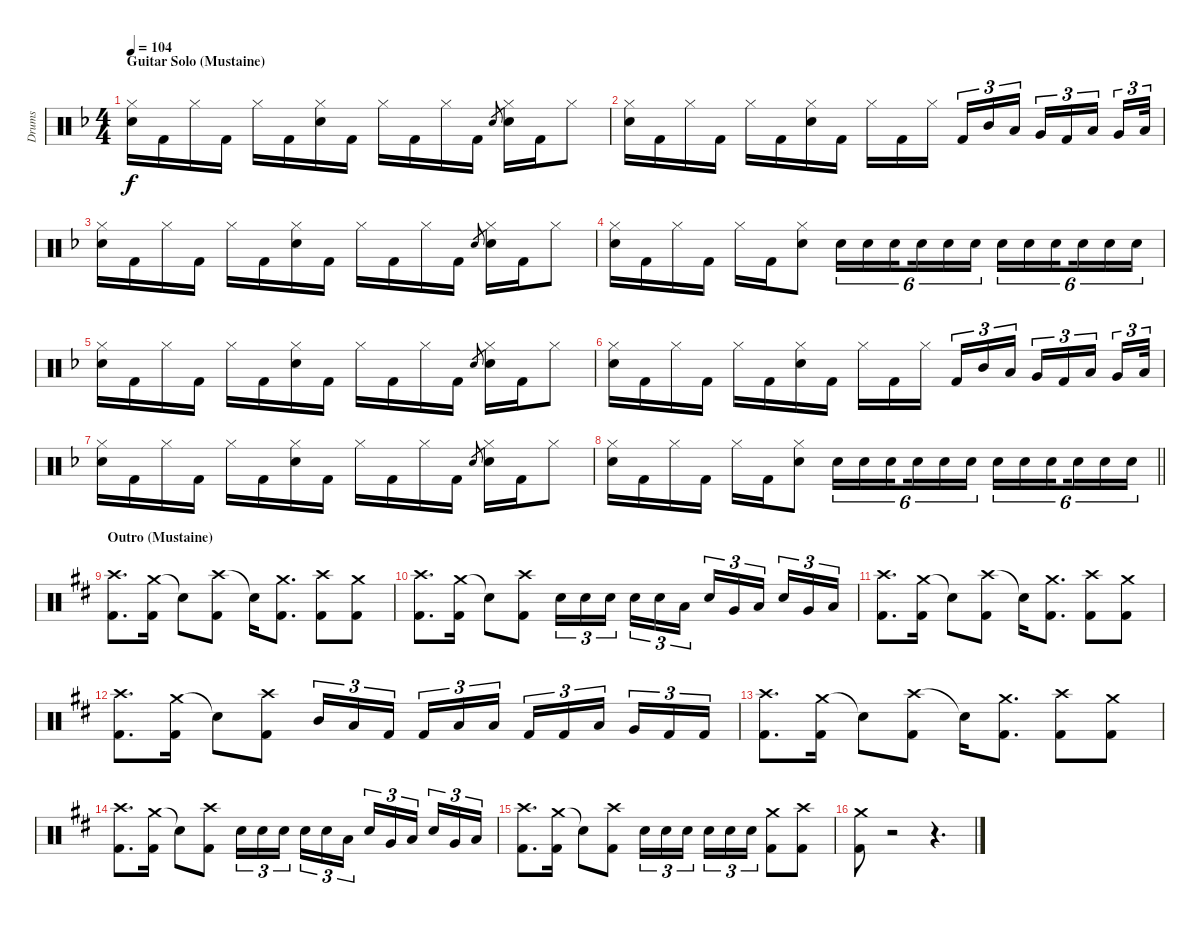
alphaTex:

\track ("Drums" "Drums") {instrument percussion}
\staff {score}
\articulation defaults
\ts (4 4)
\section ("" "Guitar Solo (Mustaine)")
\tempo 104
\clef neutral
\ks dminor
("Hi-Hat (closed)" "Snare (hit) 2").16{dy f} "Kick (hit) 2".16 "Hi-Hat (closed)".16 "Kick (hit) 2".16 "Hi-Hat (closed)".16 "Kick (hit) 2".16 ("Hi-Hat (closed)" "Snare (hit) 2").16 "Kick (hit) 2".16 "Hi-Hat (closed)".16 "Kick (hit) 2".16 "Hi-Hat (closed)".16 "Kick (hit) 2".16 "Snare (hit) 2".8{gr} ("Hi-Hat (closed)" "Snare (hit) 2").16 "Kick (hit) 2".16 "Hi-Hat (closed)".8 |
("Hi-Hat (closed)" "Snare (hit) 2").16 "Kick (hit) 2".16 "Hi-Hat (closed)".16 "Kick (hit) 2".16 "Hi-Hat (closed)".16 "Kick (hit) 2".16 ("Hi-Hat (closed)" "Snare (hit) 2").16 "Kick (hit) 2".16 "Hi-Hat (closed)".16 "Kick (hit) 2".16 "Hi-Hat (closed)".16{beam splitsecondary} "Kick (hit) 2".16{tu (3 2)} "Mid Tom (hit)".16{tu (3 2)} "Low Tom (hit)".16{tu (3 2) beam splitsecondary} "Very Low Tom (hit)".16{tu (3 2)} "Kick (hit) 2".16{tu (3 2)} "Low Tom (hit)".16{tu (3 2) beam splitsecondary} "Very Low Tom (hit)".16{tu (3 2)} "Low Floor Tom (hit)".32{tu (3 2)} |
("Hi-Hat (closed)" "Snare (hit) 2").16 "Kick (hit) 2".16 "Hi-Hat (closed)".16 "Kick (hit) 2".16 "Hi-Hat (closed)".16 "Kick (hit) 2".16 ("Hi-Hat (closed)" "Snare (hit) 2").16 "Kick (hit) 2".16 "Hi-Hat (closed)".16 "Kick (hit) 2".16 "Hi-Hat (closed)".16 "Kick (hit) 2".16 "Snare (hit) 2".8{gr} ("Hi-Hat (closed)" "Snare (hit) 2").16 "Kick (hit) 2".16 "Hi-Hat (closed)".8 |
("Hi-Hat (closed)" "Snare (hit) 2").16 "Kick (hit) 2".16 "Hi-Hat (closed)".16 "Kick (hit) 2".16 "Hi-Hat (closed)".16 "Kick (hit) 2".16 ("Hi-Hat (closed)" "Snare (hit) 2").8 "Snare (hit) 2".16{tu (6 4)} "Snare (hit) 2".16{tu (6 4)} "Snare (hit) 2".16{tu (6 4) beam splitsecondary} "Snare (hit) 2".16{tu (6 4)} "Snare (hit) 2".16{tu (6 4)} "Snare (hit) 2".16{tu (6 4)} "Snare (hit) 2".16{tu (6 4)} "Snare (hit) 2".16{tu (6 4)} "Snare (hit) 2".16{tu (6 4) beam splitsecondary} "Snare (hit) 2".16{tu (6 4)} "Snare (hit) 2".16{tu (6 4)} "Snare (hit) 2".16{tu (6 4)} |
("Hi-Hat (closed)" "Snare (hit) 2").16 "Kick (hit) 2".16 "Hi-Hat (closed)".16 "Kick (hit) 2".16 "Hi-Hat (closed)".16 "Kick (hit) 2".16 ("Hi-Hat (closed)" "Snare (hit) 2").16 "Kick (hit) 2".16 "Hi-Hat (closed)".16 "Kick (hit) 2".16 "Hi-Hat (closed)".16 "Kick (hit) 2".16 "Snare (hit) 2".8{gr} ("Hi-Hat (closed)" "Snare (hit) 2").16 "Kick (hit) 2".16 "Hi-Hat (closed)".8 |
("Hi-Hat (closed)" "Snare (hit) 2").16 "Kick (hit) 2".16 "Hi-Hat (closed)".16 "Kick (hit) 2".16 "Hi-Hat (closed)".16 "Kick (hit) 2".16 ("Hi-Hat (closed)" "Snare (hit) 2").16 "Kick (hit) 2".16 "Hi-Hat (closed)".16 "Kick (hit) 2".16 "Hi-Hat (closed)".16{beam splitsecondary} "Kick (hit) 2".16{tu (3 2)} "Mid Tom (hit)".16{tu (3 2)} "Low Tom (hit)".16{tu (3 2) beam splitsecondary} "Very Low Tom (hit)".16{tu (3 2)} "Kick (hit) 2".16{tu (3 2)} "Low Tom (hit)".16{tu (3 2) beam splitsecondary} "Very Low Tom (hit)".16{tu (3 2)} "Low Floor Tom (hit)".32{tu (3 2)} |
("Hi-Hat (closed)" "Snare (hit) 2").16 "Kick (hit) 2".16 "Hi-Hat (closed)".16 "Kick (hit) 2".16 "Hi-Hat (closed)".16 "Kick (hit) 2".16 ("Hi-Hat (closed)" "Snare (hit) 2").16 "Kick (hit) 2".16 "Hi-Hat (closed)".16 "Kick (hit) 2".16 "Hi-Hat (closed)".16 "Kick (hit) 2".16 "Snare (hit) 2".8{gr} ("Hi-Hat (closed)" "Snare (hit) 2").16 "Kick (hit) 2".16 "Hi-Hat (closed)".8 |
\barLineRight lightlight
("Hi-Hat (closed)" "Snare (hit) 2").16 "Kick (hit) 2".16 "Hi-Hat (closed)".16 "Kick (hit) 2".16 "Hi-Hat (closed)".16 "Kick (hit) 2".16 ("Hi-Hat (closed)" "Snare (hit) 2").8 "Snare (hit) 2".16{tu (6 4)} "Snare (hit) 2".16{tu (6 4)} "Snare (hit) 2".16{tu (6 4) beam splitsecondary} "Snare (hit) 2".16{tu (6 4)} "Snare (hit) 2".16{tu (6 4)} "Snare (hit) 2".16{tu (6 4)} "Snare (hit) 2".16{tu (6 4)} "Snare (hit) 2".16{tu (6 4)} "Snare (hit) 2".16{tu (6 4) beam splitsecondary} "Snare (hit) 2".16{tu (6 4)} "Snare (hit) 2".16{tu (6 4)} "Snare (hit) 2".16{tu (6 4)} |
\section ("" "Outro (Mustaine)")
\ks bminor
("Crash high (hit)" "Kick (hit) 2").8{d} ("Crash medium (hit)" "Kick (hit) 2").16 "Snare (hit)"{t}.8 ("Crash high (hit)" "Kick (hit) 2").8 "Snare (hit)"{t}.16 ("Crash medium (hit)" "Kick (hit) 2").8{d} ("Crash high (hit)" "Kick (hit) 2").8 ("Crash medium (hit)" "Kick (hit) 2").8 |
("Crash high (hit)" "Kick (hit) 2").8{d} ("Crash medium (hit)" "Kick (hit) 2").16 "Snare (hit)"{t}.8 ("Crash high (hit)" "Kick (hit) 2").8 "Snare (hit) 2".16{tu (3 2)} "Snare (hit) 2".16{tu (3 2)} "Snare (hit) 2".16{tu (3 2) beam splitsecondary} "Snare (hit) 2".16{tu (3 2)} "Snare (hit) 2".16{tu (3 2)} "Low Tom (hit)".16{tu (3 2)} "Snare (hit) 2".16{tu (3 2)} "Very Low Tom (hit)".16{tu (3 2)} "Low Tom (hit)".16{tu (3 2) beam splitsecondary} "Snare (hit) 2".16{tu (3 2)} "Very Low Tom (hit)".16{tu (3 2)} "Low Floor Tom (hit)".16{tu (3 2)} |
("Crash high (hit)" "Kick (hit) 2").8{d} ("Crash medium (hit)" "Kick (hit) 2").16 "Snare (hit)"{t}.8 ("Crash high (hit)" "Kick (hit) 2").8 "Snare (hit)"{t}.16 ("Crash medium (hit)" "Kick (hit) 2").8{d} ("Crash high (hit)" "Kick (hit) 2").8 ("Crash medium (hit)" "Kick (hit) 2").8 |
("Crash high (hit)" "Kick (hit) 2").8{d} ("Crash medium (hit)" "Kick (hit) 2").16 "Snare (hit)"{t}.8 ("Crash high (hit)" "Kick (hit) 2").8 "Mid Tom (hit)".16{tu (3 2)} "Low Tom (hit)".16{tu (3 2)} "Kick (hit) 2".16{tu (3 2) beam splitsecondary} "Kick (hit) 2".16{tu (3 2)} "Low Tom (hit)".16{tu (3 2)} "Low Tom (hit)".16{tu (3 2)} "Kick (hit) 2".16{tu (3 2)} "Kick (hit) 2".16{tu (3 2)} "Low Tom (hit)".16{tu (3 2) beam splitsecondary} "Very Low Tom (hit)".16{tu (3 2)} "Kick (hit) 2".16{tu (3 2)} "Kick (hit) 2".16{tu (3 2)} |
("Crash high (hit)" "Kick (hit) 2").8{d} ("Crash medium (hit)" "Kick (hit) 2").16 "Snare (hit)"{t}.8 ("Crash high (hit)" "Kick (hit) 2").8 "Snare (hit)"{t}.16 ("Crash medium (hit)" "Kick (hit) 2").8{d} ("Crash high (hit)" "Kick (hit) 2").8 ("Crash medium (hit)" "Kick (hit) 2").8 |
("Crash high (hit)" "Kick (hit) 2").8{d} ("Crash medium (hit)" "Kick (hit) 2").16 "Snare (hit)"{t}.8 ("Crash high (hit)" "Kick (hit) 2").8 "Snare (hit) 2".16{tu (3 2)} "Snare (hit) 2".16{tu (3 2)} "Snare (hit) 2".16{tu (3 2) beam splitsecondary} "Snare (hit) 2".16{tu (3 2)} "Snare (hit) 2".16{tu (3 2)} "Low Tom (hit)".16{tu (3 2)} "Snare (hit) 2".16{tu (3 2)} "Very Low Tom (hit)".16{tu (3 2)} "Low Tom (hit)".16{tu (3 2) beam splitsecondary} "Snare (hit) 2".16{tu (3 2)} "Very Low Tom (hit)".16{tu (3 2)} "Low Floor Tom (hit)".16{tu (3 2)} |
("Crash high (hit)" "Kick (hit) 2").8{d} ("Crash medium (hit)" "Kick (hit) 2").16 "Snare (hit)"{t}.8 ("Crash high (hit)" "Kick (hit) 2").8 "Snare (hit) 2".16{tu (3 2)} "Snare (hit) 2".16{tu (3 2)} "Snare (hit) 2".16{tu (3 2) beam splitsecondary} "Snare (hit) 2".16{tu (3 2)} "Snare (hit) 2".16{tu (3 2)} "Snare (hit) 2".16{tu (3 2)} ("Crash medium (hit)" "Kick (hit) 2").8 ("Crash high (hit)" "Kick (hit) 2").8 |
("Crash medium (hit)" "Kick (hit) 2").8 r.2 r.4{d}
